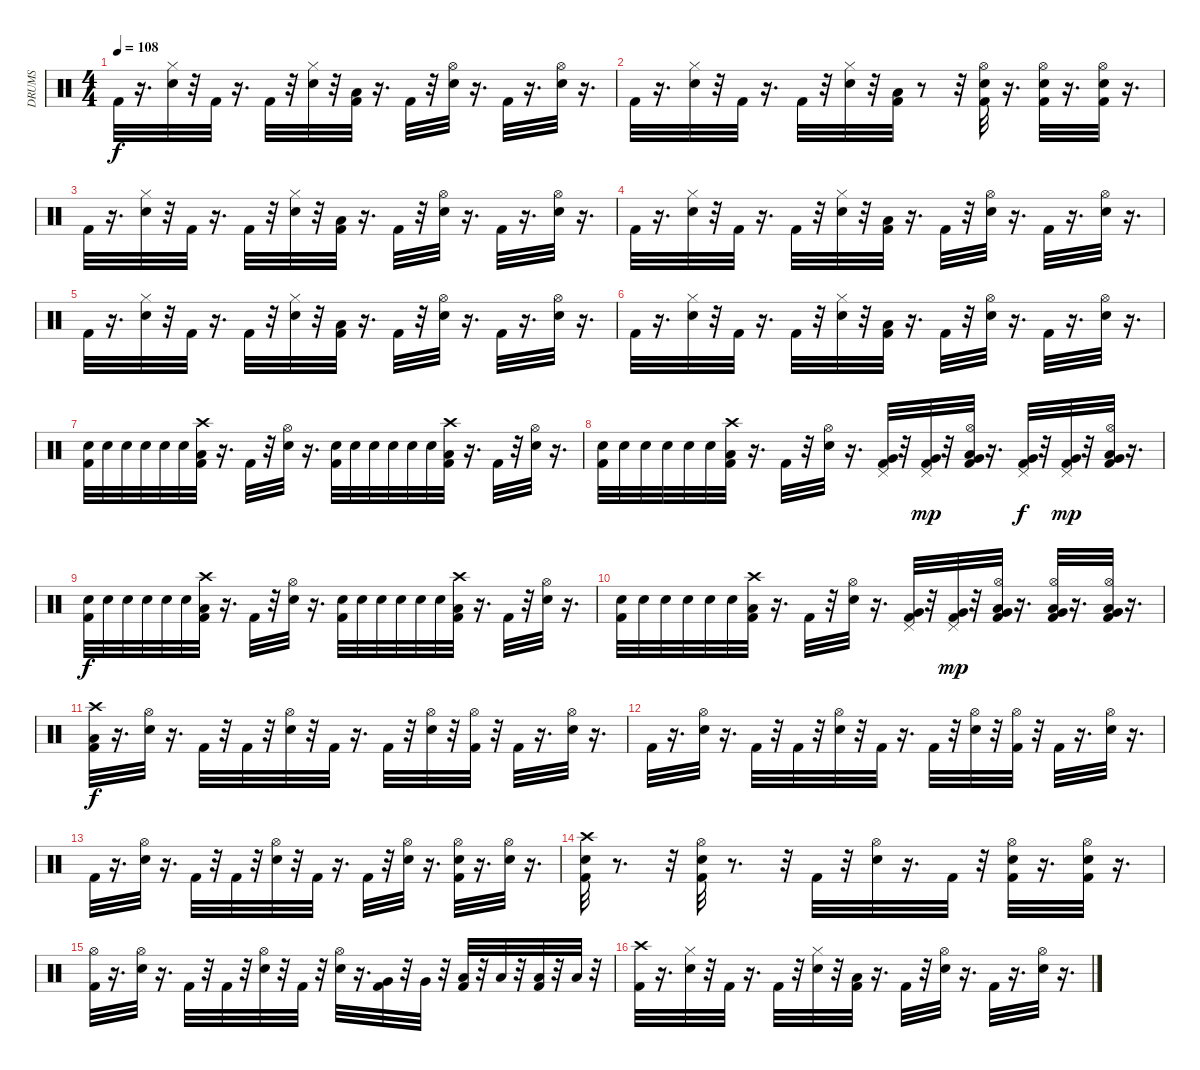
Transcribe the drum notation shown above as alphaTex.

\track ("DRUMS" "DRUMS") {instrument percussion}
\staff {score}
\articulation defaults
\ts (4 4)
\tempo 108
\clef neutral
\ks c "Kick (hit) 2".32{dy f}
r.16{d} ("Electric Snare (hit)" "Hi-Hat (closed)").32 r.32 "Kick (hit) 2".32 r.16{d} "Kick (hit) 2".32 r.32 ("Electric Snare (hit)" "Hi-Hat (closed)").32 r.32 ("Kick (hit) 2" "Low Tom (hit)").32 r.16{d} "Kick (hit) 2".32 r.32 ("Electric Snare (hit)" "Hi-Hat (open)").32 r.16{d} "Kick (hit) 2".32 r.16{d} ("Electric Snare (hit)" "Hi-Hat (open)").32 r.16{d} |
"Kick (hit) 2".32 r.16{d} ("Electric Snare (hit)" "Hi-Hat (closed)").32 r.32 "Kick (hit) 2".32 r.16{d} "Kick (hit) 2".32 r.32 ("Electric Snare (hit)" "Hi-Hat (closed)").32 r.32 ("Kick (hit) 2" "Low Tom (hit)").32 r.8 r.32 ("Electric Snare (hit)" "Hi-Hat (open)" "Kick (hit) 2").32 r.16{d} ("Kick (hit) 2" "Electric Snare (hit)" "Hi-Hat (open)").32 r.16{d} ("Electric Snare (hit)" "Hi-Hat (open)" "Kick (hit) 2").32 r.16{d} |
"Kick (hit) 2".32 r.16{d} ("Electric Snare (hit)" "Hi-Hat (closed)").32 r.32 "Kick (hit) 2".32 r.16{d} "Kick (hit) 2".32 r.32 ("Electric Snare (hit)" "Hi-Hat (closed)").32 r.32 ("Kick (hit) 2" "Low Tom (hit)").32 r.16{d} "Kick (hit) 2".32 r.32 ("Electric Snare (hit)" "Hi-Hat (open)").32 r.16{d} "Kick (hit) 2".32 r.16{d} ("Electric Snare (hit)" "Hi-Hat (open)").32 r.16{d} |
"Kick (hit) 2".32 r.16{d} ("Electric Snare (hit)" "Hi-Hat (closed)").32 r.32 "Kick (hit) 2".32 r.16{d} "Kick (hit) 2".32 r.32 ("Electric Snare (hit)" "Hi-Hat (closed)").32 r.32 ("Kick (hit) 2" "Low Tom (hit)").32 r.16{d} "Kick (hit) 2".32 r.32 ("Electric Snare (hit)" "Hi-Hat (open)").32 r.16{d} "Kick (hit) 2".32 r.16{d} ("Electric Snare (hit)" "Hi-Hat (open)").32 r.16{d} |
"Kick (hit) 2".32 r.16{d} ("Electric Snare (hit)" "Hi-Hat (closed)").32 r.32 "Kick (hit) 2".32 r.16{d} "Kick (hit) 2".32 r.32 ("Electric Snare (hit)" "Hi-Hat (closed)").32 r.32 ("Kick (hit) 2" "Low Tom (hit)").32 r.16{d} "Kick (hit) 2".32 r.32 ("Electric Snare (hit)" "Hi-Hat (open)").32 r.16{d} "Kick (hit) 2".32 r.16{d} ("Electric Snare (hit)" "Hi-Hat (open)").32 r.16{d} |
"Kick (hit) 2".32 r.16{d} ("Electric Snare (hit)" "Hi-Hat (closed)").32 r.32 "Kick (hit) 2".32 r.16{d} "Kick (hit) 2".32 r.32 ("Electric Snare (hit)" "Hi-Hat (closed)").32 r.32 ("Kick (hit) 2" "Low Tom (hit)").32 r.16{d} "Kick (hit) 2".32 r.32 ("Electric Snare (hit)" "Hi-Hat (open)").32 r.16{d} "Kick (hit) 2".32 r.16{d} ("Electric Snare (hit)" "Hi-Hat (open)").32 r.16{d} |
("Kick (hit) 2" "Electric Snare (hit)").32 "Electric Snare (hit)".32 "Electric Snare (hit)".32 "Electric Snare (hit)".32 "Electric Snare (hit)".32 "Electric Snare (hit)".32 ("Kick (hit) 2" "Crash high (hit)" "Low Tom (hit)").32 r.16{d} "Kick (hit) 2".32 r.32 ("Electric Snare (hit)" "Hi-Hat (open)").32 r.16{d} ("Kick (hit) 2" "Electric Snare (hit)").32 "Electric Snare (hit)".32 "Electric Snare (hit)".32 "Electric Snare (hit)".32 "Electric Snare (hit)".32 "Electric Snare (hit)".32 ("Kick (hit) 2" "Crash high (hit)" "Low Tom (hit)").32 r.16{d} "Kick (hit) 2".32 r.32 ("Electric Snare (hit)" "Hi-Hat (open)").32 r.16{d} |
("Kick (hit) 2" "Electric Snare (hit)").32 "Electric Snare (hit)".32 "Electric Snare (hit)".32 "Electric Snare (hit)".32 "Electric Snare (hit)".32 "Electric Snare (hit)".32 ("Kick (hit) 2" "Crash high (hit)" "Low Tom (hit)").32 r.16{d} "Kick (hit) 2".32 r.32 ("Electric Snare (hit)" "Hi-Hat (open)").32 r.16{d} ("Kick (hit) 2" "Very Low Tom (hit)" "Pedal Hi-Hat (hit)").32 r.32 ("Kick (hit) 2" "Very Low Tom (hit)" "Pedal Hi-Hat (hit)").32{dy mp} r.32 ("Kick (hit) 2" "Very Low Tom (hit)" "Low Floor Tom (hit)" "Hi-Hat (open)").32 r.16{d} ("Kick (hit) 2" "Very Low Tom (hit)" "Pedal Hi-Hat (hit)").32{dy f} r.32 ("Kick (hit) 2" "Very Low Tom (hit)" "Pedal Hi-Hat (hit)").32{dy mp} r.32 ("Kick (hit) 2" "Very Low Tom (hit)" "Low Floor Tom (hit)" "Hi-Hat (open)").32 r.16{d} |
("Kick (hit) 2" "Electric Snare (hit)").32{dy f} "Electric Snare (hit)".32 "Electric Snare (hit)".32 "Electric Snare (hit)".32 "Electric Snare (hit)".32 "Electric Snare (hit)".32 ("Kick (hit) 2" "Crash high (hit)" "Low Tom (hit)").32 r.16{d} "Kick (hit) 2".32 r.32 ("Electric Snare (hit)" "Hi-Hat (open)").32 r.16{d} ("Kick (hit) 2" "Electric Snare (hit)").32 "Electric Snare (hit)".32 "Electric Snare (hit)".32 "Electric Snare (hit)".32 "Electric Snare (hit)".32 "Electric Snare (hit)".32 ("Kick (hit) 2" "Crash high (hit)" "Low Tom (hit)").32 r.16{d} "Kick (hit) 2".32 r.32 ("Electric Snare (hit)" "Hi-Hat (open)").32 r.16{d} |
("Kick (hit) 2" "Electric Snare (hit)").32 "Electric Snare (hit)".32 "Electric Snare (hit)".32 "Electric Snare (hit)".32 "Electric Snare (hit)".32 "Electric Snare (hit)".32 ("Kick (hit) 2" "Crash high (hit)" "Low Tom (hit)").32 r.16{d} "Kick (hit) 2".32 r.32 ("Electric Snare (hit)" "Hi-Hat (open)").32 r.16{d} ("Kick (hit) 2" "Very Low Tom (hit)" "Pedal Hi-Hat (hit)").32 r.32 ("Kick (hit) 2" "Very Low Tom (hit)" "Pedal Hi-Hat (hit)").32{dy mp} r.32 ("Kick (hit) 2" "Very Low Tom (hit)" "Hi-Hat (open)" "Low Floor Tom (hit)").32 r.16{d} ("Kick (hit) 2" "Very Low Tom (hit)" "Hi-Hat (open)" "Low Floor Tom (hit)").32 r.16{d} ("Kick (hit) 2" "Very Low Tom (hit)" "Hi-Hat (open)" "Low Floor Tom (hit)").32 r.16{d} |
("Kick (hit) 2" "Crash high (hit)" "Low Tom (hit)").32{dy f} r.16{d} ("Electric Snare (hit)" "Hi-Hat (open)").32 r.16{d} "Kick (hit) 2".32 r.32 "Kick (hit) 2".32 r.32 ("Electric Snare (hit)" "Hi-Hat (open)").32 r.32 "Kick (hit) 2".32 r.16{d} "Kick (hit) 2".32 r.32 ("Electric Snare (hit)" "Hi-Hat (open)").32 r.32 ("Hi-Hat (open)" "Kick (hit) 2").32 r.32 "Kick (hit) 2".32 r.16{d} ("Electric Snare (hit)" "Hi-Hat (open)").32 r.16{d} |
"Kick (hit) 2".32 r.16{d} ("Electric Snare (hit)" "Hi-Hat (open)").32 r.16{d} "Kick (hit) 2".32 r.32 "Kick (hit) 2".32 r.32 ("Electric Snare (hit)" "Hi-Hat (open)").32 r.32 "Kick (hit) 2".32 r.16{d} "Kick (hit) 2".32 r.32 ("Electric Snare (hit)" "Hi-Hat (open)").32 r.32 ("Hi-Hat (open)" "Kick (hit) 2").32 r.32 "Kick (hit) 2".32 r.16{d} ("Electric Snare (hit)" "Hi-Hat (open)").32 r.16{d} |
"Kick (hit) 2".32 r.16{d} ("Electric Snare (hit)" "Hi-Hat (open)").32 r.16{d} "Kick (hit) 2".32 r.32 "Kick (hit) 2".32 r.32 ("Electric Snare (hit)" "Hi-Hat (open)").32 r.32 "Kick (hit) 2".32 r.16{d} "Kick (hit) 2".32 r.32 ("Electric Snare (hit)" "Hi-Hat (open)").32 r.16{d} ("Kick (hit) 2" "Electric Snare (hit)" "Hi-Hat (open)").32 r.16{d} ("Electric Snare (hit)" "Hi-Hat (open)").32 r.16{d} |
("Kick (hit) 2" "Electric Snare (hit)" "Crash high (hit)").32 r.8{d} r.32 ("Electric Snare (hit)" "Kick (hit) 2" "Hi-Hat (open)").32 r.8{d} r.32 "Kick (hit) 2".32 r.32 ("Electric Snare (hit)" "Hi-Hat (open)").32 r.16{d} "Kick (hit) 2".32 r.32 ("Electric Snare (hit)" "Kick (hit) 2" "Hi-Hat (open)").32 r.16{d} ("Electric Snare (hit)" "Kick (hit) 2" "Hi-Hat (open)").32 r.16{d} |
("Kick (hit) 2" "Hi-Hat (open)").32 r.16{d} ("Electric Snare (hit)" "Hi-Hat (open)").32 r.16{d} "Kick (hit) 2".32 r.32 "Kick (hit) 2".32 r.32 ("Electric Snare (hit)" "Hi-Hat (open)").32 r.32 "Kick (hit) 2".32 r.32 ("Electric Snare (hit)" "Hi-Hat (open)").32 r.16{d} ("Very Low Tom (hit)" "Kick (hit) 2").32 r.32 "Very Low Tom (hit)".32 r.32 ("Low Floor Tom (hit)" "Kick (hit) 2").32 r.32 "Low Floor Tom (hit)".32 r.32 ("Low Floor Tom (hit)" "Kick (hit) 2").32 r.32 "Low Floor Tom (hit)".32 r.32 |
("Kick (hit) 2" "Crash high (hit)").32 r.16{d} ("Electric Snare (hit)" "Hi-Hat (closed)").32 r.32 "Kick (hit) 2".32 r.16{d} "Kick (hit) 2".32 r.32 ("Electric Snare (hit)" "Hi-Hat (closed)").32 r.32 ("Kick (hit) 2" "Low Tom (hit)").32 r.16{d} "Kick (hit) 2".32 r.32 ("Hi-Hat (open)" "Electric Snare (hit)").32 r.16{d} "Kick (hit) 2".32 r.16{d} ("Hi-Hat (open)" "Electric Snare (hit)").32 r.16{d}
